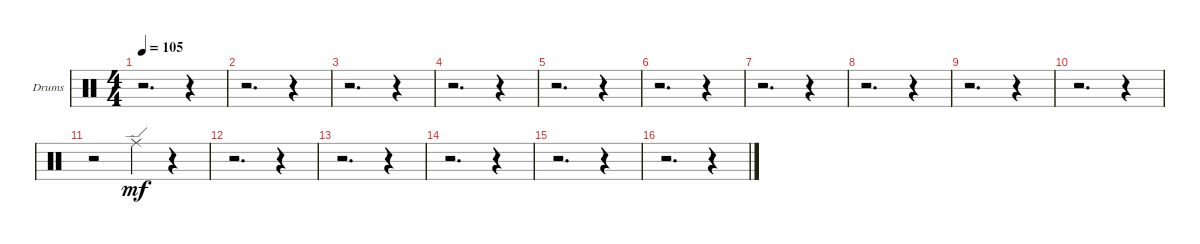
\defaultSystemsLayout 4
\bracketExtendMode groupsimilarinstruments
\firstSystemTrackNameOrientation horizontal
\otherSystemsTrackNameOrientation horizontal
\track ("Drumkit" "Drums") {instrument percussion}
\staff {score}
\articulation defaults
\ts (4 4)
\tempo 105
\clef neutral
\scale
0.333333
\ks c
r.2{d dy mf} r.4 |
\scale
0.333333 r.2{d} r.4 |
\scale
0.333333 r.2{d} r.4 |
\scale
0.333333 r.2{d} r.4 |
\scale
0.333333 r.2{d} r.4 |
\scale
0.333333 r.2{d} r.4 |
\scale
0.333333 r.2{d} r.4 |
\scale
0.333333 r.2{d} r.4 |
\scale
0.333333 r.2{d} r.4 |
\scale
0.333333 r.2{d} r.4 |
\scale
0.333333 r.2 "Ride (edge)".4 r.4 |
\scale
0.333333 r.2{d} r.4 |
\scale
0.333333 r.2{d} r.4 |
\scale
0.333333 r.2{d} r.4 |
\scale
0.333333 r.2{d} r.4 |
\scale
0.333333 r.2{d} r.4
